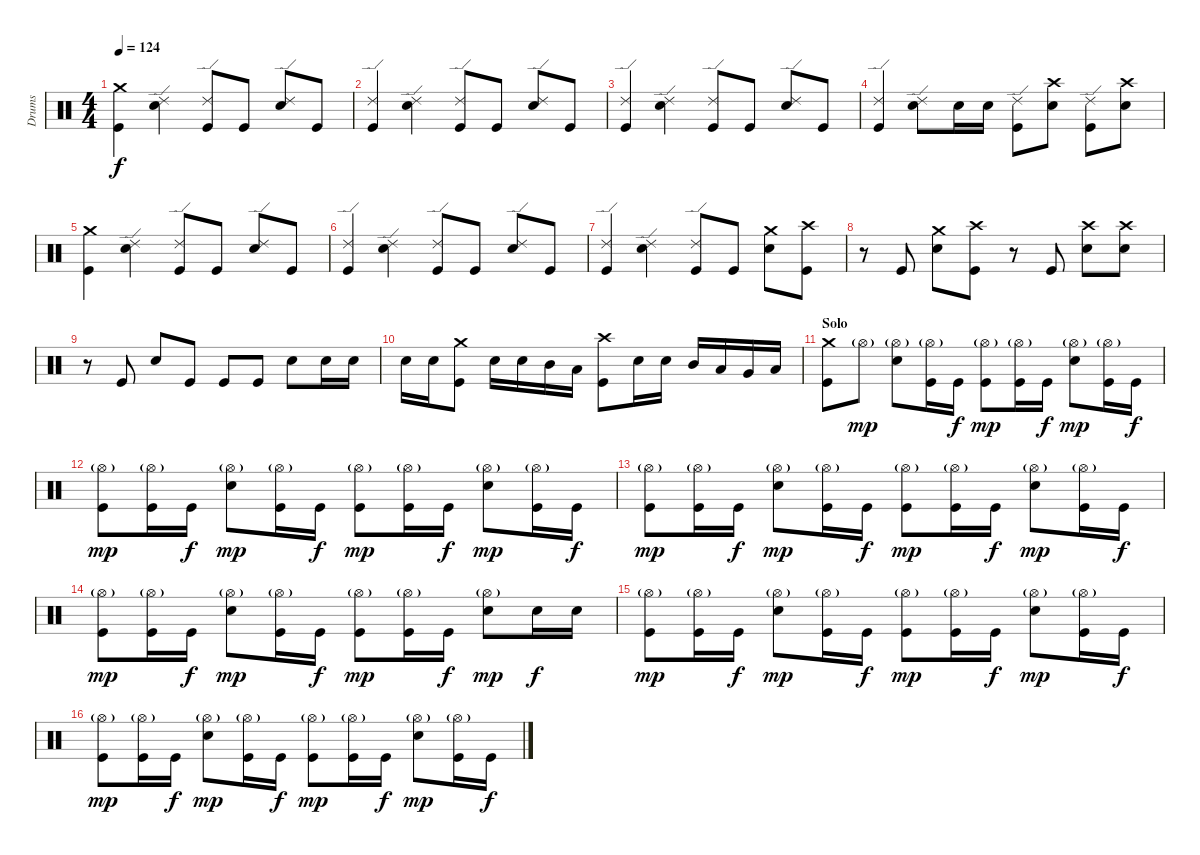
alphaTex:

\track ("Drums" "Drums") {instrument percussion}
\staff {score}
\articulation defaults
\ts (4 4)
\tempo 124
\clef neutral
\ks c
("Crash medium (hit)" "Kick (hit)").4{dy f} ("Ride (edge) 2" "Snare (hit) 2").4 ("Ride (edge) 2" "Kick (hit)").8 "Kick (hit)".8 ("Ride (edge) 2" "Snare (hit) 2").8 "Kick (hit)".8 |
("Ride (edge) 2" "Kick (hit)").4 ("Ride (edge) 2" "Snare (hit) 2").4 ("Ride (edge) 2" "Kick (hit)").8 "Kick (hit)".8 ("Ride (edge) 2" "Snare (hit) 2").8 "Kick (hit)".8 |
("Ride (edge) 2" "Kick (hit)").4 ("Ride (edge) 2" "Snare (hit) 2").4 ("Ride (edge) 2" "Kick (hit)").8 "Kick (hit)".8 ("Ride (edge) 2" "Snare (hit) 2").8 "Kick (hit)".8 |
("Ride (edge) 2" "Kick (hit)").4 ("Ride (edge) 2" "Snare (hit) 2").8 "Snare (hit) 2".16 "Snare (hit) 2".16 ("Ride (edge) 2" "Kick (hit)").8 ("Crash high (hit)" "Snare (hit) 2").8 ("Ride (edge) 2" "Kick (hit)").8 ("Crash high (hit)" "Snare (hit) 2").8 |
("Crash medium (hit)" "Kick (hit)").4 ("Ride (edge) 2" "Snare (hit) 2").4 ("Ride (edge) 2" "Kick (hit)").8 "Kick (hit)".8 ("Ride (edge) 2" "Snare (hit) 2").8 "Kick (hit)".8 |
("Ride (edge) 2" "Kick (hit)").4 ("Ride (edge) 2" "Snare (hit) 2").4 ("Ride (edge) 2" "Kick (hit)").8 "Kick (hit)".8 ("Ride (edge) 2" "Snare (hit) 2").8 "Kick (hit)".8 |
("Ride (edge) 2" "Kick (hit)").4 ("Ride (edge) 2" "Snare (hit) 2").4 ("Ride (edge) 2" "Kick (hit)").8 "Kick (hit)".8 ("Crash medium (hit)" "Snare (hit) 2").8 ("Crash high (hit)" "Kick (hit)").8 |
r.8 "Kick (hit)".8 ("Crash medium (hit)" "Snare (hit) 2").8 ("Crash high (hit)" "Kick (hit)").8 r.8 "Kick (hit)".8 ("Crash high (hit)" "Snare (hit) 2").8 ("Crash high (hit)" "Snare (hit) 2").8 |
r.8 "Kick (hit)".8 "Snare (hit) 2".8 "Kick (hit)".8 "Kick (hit)".8 "Kick (hit)".8 "Snare (hit) 2".8 "Snare (hit) 2".16 "Snare (hit) 2".16 |
"Snare (hit) 2".16 "Snare (hit) 2".16 ("Crash medium (hit)" "Kick (hit)").8 "Snare (hit) 2".16 "Snare (hit) 2".16 "Mid Tom (hit)".16 "Low Tom (hit)".16 ("Crash high (hit)" "Kick (hit)").8 "Snare (hit) 2".16 "Snare (hit) 2".16 "Mid Tom (hit)".16 "Low Tom (hit)".16 "Very Low Tom (hit)".16 "Low Floor Tom (hit)".16 |
\section ("" "Solo")
("Crash medium (hit)" "Kick (hit)").8 "Hi-Hat (open)"{g}.8{dy mp} ("Hi-Hat (open)"{g} "Snare (hit) 2").8 ("Hi-Hat (open)"{g} "Kick (hit)").16 "Kick (hit)".16{dy f} ("Hi-Hat (open)"{g} "Kick (hit)").8{dy mp} ("Hi-Hat (open)"{g} "Kick (hit)").16 "Kick (hit)".16{dy f} ("Hi-Hat (open)"{g} "Snare (hit) 2").8{dy mp} ("Hi-Hat (open)"{g} "Kick (hit)").16 "Kick (hit)".16{dy f} |
("Hi-Hat (open)"{g} "Kick (hit)").8{dy mp} ("Hi-Hat (open)"{g} "Kick (hit)").16 "Kick (hit)".16{dy f} ("Hi-Hat (open)"{g} "Snare (hit) 2").8{dy mp} ("Hi-Hat (open)"{g} "Kick (hit)").16 "Kick (hit)".16{dy f} ("Hi-Hat (open)"{g} "Kick (hit)").8{dy mp} ("Hi-Hat (open)"{g} "Kick (hit)").16 "Kick (hit)".16{dy f} ("Hi-Hat (open)"{g} "Snare (hit) 2").8{dy mp} ("Hi-Hat (open)"{g} "Kick (hit)").16 "Kick (hit)".16{dy f} |
("Hi-Hat (open)"{g} "Kick (hit)").8{dy mp} ("Hi-Hat (open)"{g} "Kick (hit)").16 "Kick (hit)".16{dy f} ("Hi-Hat (open)"{g} "Snare (hit) 2").8{dy mp} ("Hi-Hat (open)"{g} "Kick (hit)").16 "Kick (hit)".16{dy f} ("Hi-Hat (open)"{g} "Kick (hit)").8{dy mp} ("Hi-Hat (open)"{g} "Kick (hit)").16 "Kick (hit)".16{dy f} ("Hi-Hat (open)"{g} "Snare (hit) 2").8{dy mp} ("Hi-Hat (open)"{g} "Kick (hit)").16 "Kick (hit)".16{dy f} |
("Hi-Hat (open)"{g} "Kick (hit)").8{dy mp} ("Hi-Hat (open)"{g} "Kick (hit)").16 "Kick (hit)".16{dy f} ("Hi-Hat (open)"{g} "Snare (hit) 2").8{dy mp} ("Hi-Hat (open)"{g} "Kick (hit)").16 "Kick (hit)".16{dy f} ("Hi-Hat (open)"{g} "Kick (hit)").8{dy mp} ("Hi-Hat (open)"{g} "Kick (hit)").16 "Kick (hit)".16{dy f} ("Hi-Hat (open)"{g} "Snare (hit) 2").8{dy mp} "Snare (hit) 2".16{dy f} "Snare (hit) 2".16 |
("Hi-Hat (open)"{g} "Kick (hit)").8{dy mp} ("Hi-Hat (open)"{g} "Kick (hit)").16 "Kick (hit)".16{dy f} ("Hi-Hat (open)"{g} "Snare (hit) 2").8{dy mp} ("Hi-Hat (open)"{g} "Kick (hit)").16 "Kick (hit)".16{dy f} ("Hi-Hat (open)"{g} "Kick (hit)").8{dy mp} ("Hi-Hat (open)"{g} "Kick (hit)").16 "Kick (hit)".16{dy f} ("Hi-Hat (open)"{g} "Snare (hit) 2").8{dy mp} ("Hi-Hat (open)"{g} "Kick (hit)").16 "Kick (hit)".16{dy f} |
("Hi-Hat (open)"{g} "Kick (hit)").8{dy mp} ("Hi-Hat (open)"{g} "Kick (hit)").16 "Kick (hit)".16{dy f} ("Hi-Hat (open)"{g} "Snare (hit) 2").8{dy mp} ("Hi-Hat (open)"{g} "Kick (hit)").16 "Kick (hit)".16{dy f} ("Hi-Hat (open)"{g} "Kick (hit)").8{dy mp} ("Hi-Hat (open)"{g} "Kick (hit)").16 "Kick (hit)".16{dy f} ("Hi-Hat (open)"{g} "Snare (hit) 2").8{dy mp} ("Hi-Hat (open)"{g} "Kick (hit)").16 "Kick (hit)".16{dy f}
